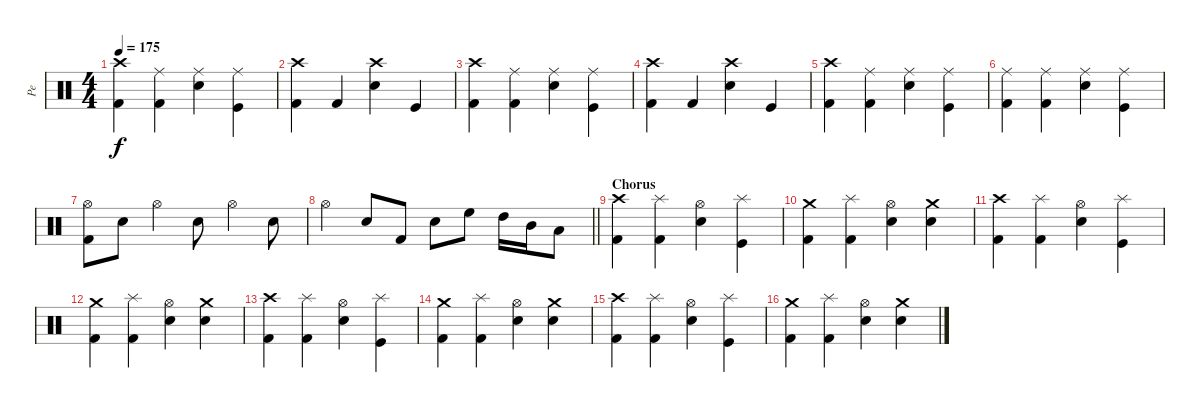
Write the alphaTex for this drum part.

\track ("Pe" "Pe") {instrument percussion}
\staff {score}
\articulation defaults
\ts (4 4)
\tempo 175
\clef neutral
\ks c
("Kick (hit) 2" "Crash high (hit)").4{dy f} ("Kick (hit) 2" "Ride (middle)").4 ("Electric Snare (hit)" "Ride (middle)").4 ("Kick (hit)" "Ride (middle)").4 |
("Kick (hit) 2" "Crash high (hit)").4 "Kick (hit) 2".4 ("Electric Snare (hit)" "Crash high (hit)").4 "Kick (hit)".4 |
("Kick (hit) 2" "Crash high (hit)").4 ("Kick (hit) 2" "Ride (middle)").4 ("Electric Snare (hit)" "Ride (middle)").4 ("Kick (hit)" "Ride (middle)").4 |
("Kick (hit) 2" "Crash high (hit)").4 "Kick (hit) 2".4 ("Electric Snare (hit)" "Crash high (hit)").4 "Kick (hit)".4 |
("Kick (hit) 2" "Crash high (hit)").4 ("Kick (hit) 2" "Ride (middle)").4 ("Electric Snare (hit)" "Ride (middle)").4 ("Kick (hit)" "Ride (middle)").4 |
("Kick (hit) 2" "Ride (middle)").4 ("Kick (hit) 2" "Ride (middle)").4 ("Electric Snare (hit)" "Ride (middle)").4 ("Kick (hit)" "Ride (middle)").4 |
("Kick (hit) 2" "Hi-Hat (open)").8 "Electric Snare (hit)".8 "Hi-Hat (open)".4 "Electric Snare (hit)".8 "Hi-Hat (open)".4 "Electric Snare (hit)".8 |
\barLineRight lightlight "Hi-Hat (open)".4 "Electric Snare (hit)".8 "Kick (hit) 2".8 "Electric Snare (hit)".8 "High Floor Tom (hit)".8 "High Tom (hit)".16 "Mid Tom (hit)".16 "Low Tom (hit)".8
|
\section ("" "Chorus")
("Kick (hit) 2" "Crash high (hit)").4 ("Kick (hit) 2" "Splash (hit)").4 ("Electric Snare (hit)" "Hi-Hat (open)").4 ("Kick (hit)" "Splash (hit)").4 |
("Kick (hit) 2" "Crash medium (hit)").4 ("Kick (hit) 2" "Splash (hit)").4 ("Electric Snare (hit)" "Hi-Hat (open)").4 ("Electric Snare (hit)" "Crash medium (hit)").4 |
("Kick (hit) 2" "Crash high (hit)").4 ("Kick (hit) 2" "Splash (hit)").4 ("Electric Snare (hit)" "Hi-Hat (open)").4 ("Kick (hit)" "Splash (hit)").4 |
("Kick (hit) 2" "Crash medium (hit)").4 ("Kick (hit) 2" "Splash (hit)").4 ("Electric Snare (hit)" "Hi-Hat (open)").4 ("Electric Snare (hit)" "Crash medium (hit)").4 |
("Kick (hit) 2" "Crash high (hit)").4 ("Kick (hit) 2" "Splash (hit)").4 ("Electric Snare (hit)" "Hi-Hat (open)").4 ("Kick (hit)" "Splash (hit)").4 |
("Kick (hit) 2" "Crash medium (hit)").4 ("Kick (hit) 2" "Splash (hit)").4 ("Electric Snare (hit)" "Hi-Hat (open)").4 ("Electric Snare (hit)" "Crash medium (hit)").4 |
("Kick (hit) 2" "Crash high (hit)").4 ("Kick (hit) 2" "Splash (hit)").4 ("Electric Snare (hit)" "Hi-Hat (open)").4 ("Kick (hit)" "Splash (hit)").4 |
("Kick (hit) 2" "Crash medium (hit)").4 ("Kick (hit) 2" "Splash (hit)").4 ("Electric Snare (hit)" "Hi-Hat (open)").4 ("Electric Snare (hit)" "Crash medium (hit)").4
